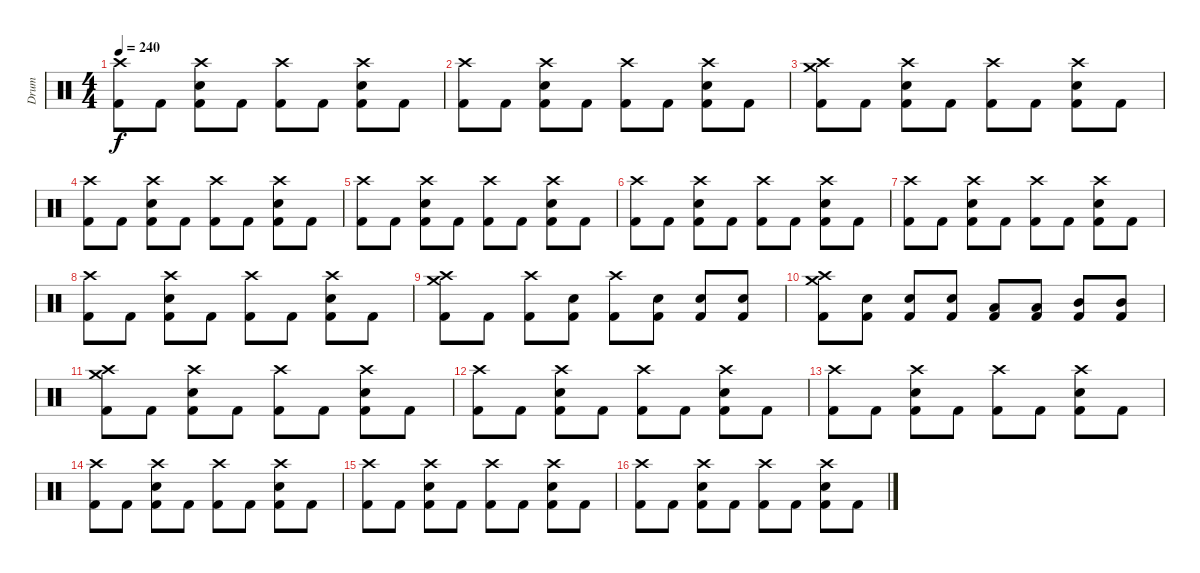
\track ("Drum" "Drum") {instrument percussion}
\staff {score}
\articulation defaults
\ts (4 4)
\tempo 240
\clef neutral
\ks c
("Crash high (hit)" "Kick (hit) 2").8{dy f} "Kick (hit) 2".8 ("Crash high (hit)" "Kick (hit) 2" "Electric Snare (hit)").8 "Kick (hit) 2".8 ("Crash high (hit)" "Kick (hit) 2").8 "Kick (hit) 2".8 ("Crash high (hit)" "Kick (hit) 2" "Electric Snare (hit)").8 "Kick (hit) 2".8 |
("Crash high (hit)" "Kick (hit) 2").8 "Kick (hit) 2".8 ("Crash high (hit)" "Kick (hit) 2" "Electric Snare (hit)").8 "Kick (hit) 2".8 ("Crash high (hit)" "Kick (hit) 2").8 "Kick (hit) 2".8 ("Crash high (hit)" "Kick (hit) 2" "Electric Snare (hit)").8 "Kick (hit) 2".8 |
("Crash high (hit)" "Kick (hit) 2" "Crash medium (hit)").8 "Kick (hit) 2".8 ("Crash high (hit)" "Kick (hit) 2" "Electric Snare (hit)").8 "Kick (hit) 2".8 ("Crash high (hit)" "Kick (hit) 2").8 "Kick (hit) 2".8 ("Crash high (hit)" "Kick (hit) 2" "Electric Snare (hit)").8 "Kick (hit) 2".8 |
("Crash high (hit)" "Kick (hit) 2").8 "Kick (hit) 2".8 ("Crash high (hit)" "Kick (hit) 2" "Electric Snare (hit)").8 "Kick (hit) 2".8 ("Crash high (hit)" "Kick (hit) 2").8 "Kick (hit) 2".8 ("Crash high (hit)" "Kick (hit) 2" "Electric Snare (hit)").8 "Kick (hit) 2".8 |
("Crash high (hit)" "Kick (hit) 2").8 "Kick (hit) 2".8 ("Crash high (hit)" "Kick (hit) 2" "Electric Snare (hit)").8 "Kick (hit) 2".8 ("Crash high (hit)" "Kick (hit) 2").8 "Kick (hit) 2".8 ("Crash high (hit)" "Kick (hit) 2" "Electric Snare (hit)").8 "Kick (hit) 2".8 |
("Crash high (hit)" "Kick (hit) 2").8 "Kick (hit) 2".8 ("Crash high (hit)" "Kick (hit) 2" "Electric Snare (hit)").8 "Kick (hit) 2".8 ("Crash high (hit)" "Kick (hit) 2").8 "Kick (hit) 2".8 ("Crash high (hit)" "Kick (hit) 2" "Electric Snare (hit)").8 "Kick (hit) 2".8 |
("Crash high (hit)" "Kick (hit) 2").8 "Kick (hit) 2".8 ("Crash high (hit)" "Kick (hit) 2" "Electric Snare (hit)").8 "Kick (hit) 2".8 ("Crash high (hit)" "Kick (hit) 2").8 "Kick (hit) 2".8 ("Crash high (hit)" "Kick (hit) 2" "Electric Snare (hit)").8 "Kick (hit) 2".8 |
("Crash high (hit)" "Kick (hit) 2").8 "Kick (hit) 2".8 ("Crash high (hit)" "Kick (hit) 2" "Electric Snare (hit)").8 "Kick (hit) 2".8 ("Crash high (hit)" "Kick (hit) 2").8 "Kick (hit) 2".8 ("Crash high (hit)" "Kick (hit) 2" "Electric Snare (hit)").8 "Kick (hit) 2".8 |
("Crash high (hit)" "Kick (hit) 2" "Crash medium (hit)").8 "Kick (hit) 2".8 ("Crash high (hit)" "Kick (hit) 2").8 ("Kick (hit) 2" "Electric Snare (hit)").8 ("Crash high (hit)" "Kick (hit) 2").8 ("Kick (hit) 2" "Electric Snare (hit)").8 ("Kick (hit) 2" "Electric Snare (hit)").8 ("Kick (hit) 2" "Electric Snare (hit)").8 |
("Crash high (hit)" "Kick (hit) 2" "Crash medium (hit)").8 ("Kick (hit) 2" "Electric Snare (hit)").8 ("Kick (hit) 2" "Electric Snare (hit)").8 ("Kick (hit) 2" "Electric Snare (hit)").8 ("Kick (hit) 2" "Low Tom (hit)").8 ("Kick (hit) 2" "Low Tom (hit)").8 ("Kick (hit) 2" "Mid Tom (hit)").8 ("Kick (hit) 2" "Mid Tom (hit)").8 |
("Crash high (hit)" "Kick (hit) 2" "Crash medium (hit)").8 "Kick (hit) 2".8 ("Crash high (hit)" "Kick (hit) 2" "Electric Snare (hit)").8 "Kick (hit) 2".8 ("Crash high (hit)" "Kick (hit) 2").8 "Kick (hit) 2".8 ("Crash high (hit)" "Kick (hit) 2" "Electric Snare (hit)").8 "Kick (hit) 2".8 |
("Crash high (hit)" "Kick (hit) 2").8 "Kick (hit) 2".8 ("Crash high (hit)" "Kick (hit) 2" "Electric Snare (hit)").8 "Kick (hit) 2".8 ("Crash high (hit)" "Kick (hit) 2").8 "Kick (hit) 2".8 ("Crash high (hit)" "Kick (hit) 2" "Electric Snare (hit)").8 "Kick (hit) 2".8 |
("Crash high (hit)" "Kick (hit) 2").8 "Kick (hit) 2".8 ("Crash high (hit)" "Kick (hit) 2" "Electric Snare (hit)").8 "Kick (hit) 2".8 ("Crash high (hit)" "Kick (hit) 2").8 "Kick (hit) 2".8 ("Crash high (hit)" "Kick (hit) 2" "Electric Snare (hit)").8 "Kick (hit) 2".8 |
("Crash high (hit)" "Kick (hit) 2").8 "Kick (hit) 2".8 ("Crash high (hit)" "Kick (hit) 2" "Electric Snare (hit)").8 "Kick (hit) 2".8 ("Crash high (hit)" "Kick (hit) 2").8 "Kick (hit) 2".8 ("Crash high (hit)" "Kick (hit) 2" "Electric Snare (hit)").8 "Kick (hit) 2".8 |
("Crash high (hit)" "Kick (hit) 2").8 "Kick (hit) 2".8 ("Crash high (hit)" "Kick (hit) 2" "Electric Snare (hit)").8 "Kick (hit) 2".8 ("Crash high (hit)" "Kick (hit) 2").8 "Kick (hit) 2".8 ("Crash high (hit)" "Kick (hit) 2" "Electric Snare (hit)").8 "Kick (hit) 2".8 |
("Crash high (hit)" "Kick (hit) 2").8 "Kick (hit) 2".8 ("Crash high (hit)" "Kick (hit) 2" "Electric Snare (hit)").8 "Kick (hit) 2".8 ("Crash high (hit)" "Kick (hit) 2").8 "Kick (hit) 2".8 ("Crash high (hit)" "Kick (hit) 2" "Electric Snare (hit)").8 "Kick (hit) 2".8
